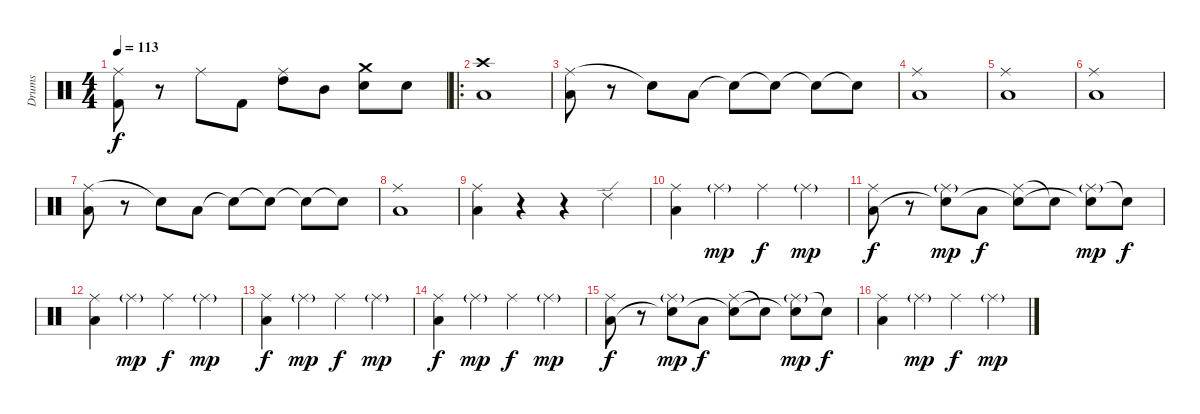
\track ("Drums" "Drums") {instrument percussion}
\staff {score}
\articulation defaults
\ts (4 4)
\tempo 113
\clef neutral
\ks c
("Ride (middle)" "Kick (hit) 2").8{dy f} r.8 "Ride (middle)".8 "Kick (hit) 2".8 ("Ride (middle)" "High Tom (hit)").8 "Mid Tom (hit)".8 ("Crash medium (hit)" "Snare (hit) 2").8 "Snare (hit) 2".8 |
\ro
("Crash high (hit)" "Low Floor Tom (hit)").1 |
("Ride (middle)" "Low Floor Tom (hit)").8 r.8 "Snare (hit)"{t}.8 "Low Floor Tom (hit)".8 "Snare (hit)"{t}.8 "Snare (hit)"{t}.8 "Snare (hit)"{t}.8 "Snare (hit)"{t}.8 |
("Ride (middle)" "Low Floor Tom (hit)").1 |
("Ride (middle)" "Low Floor Tom (hit)").1 |
("Ride (middle)" "Low Floor Tom (hit)").1 |
("Ride (middle)" "Low Floor Tom (hit)").8 r.8 "Snare (hit)"{t}.8 "Low Floor Tom (hit)".8 "Snare (hit)"{t}.8 "Snare (hit)"{t}.8 "Snare (hit)"{t}.8 "Snare (hit)"{t}.8 |
("Ride (middle)" "Low Floor Tom (hit)").1 |
("Ride (middle)" "Low Floor Tom (hit)").4 r.4 r.4 "Ride (edge) 2".4 |
("Ride (middle)" "Low Floor Tom (hit)").4 "Ride (middle)"{g}.4{dy mp} "Ride (middle)".4{dy f} "Ride (middle)"{g}.4{dy mp} |
("Ride (middle)" "Low Floor Tom (hit)").8{dy f} r.8 ("Ride (middle)"{g} "Snare (hit)"{t}).8{dy mp} "Low Floor Tom (hit)".8{dy f} ("Ride (middle)" "Snare (hit)"{t}).8 "Snare (hit)"{t}.8 ("Ride (middle)"{g} "Snare (hit)"{t}).8{dy mp} "Snare (hit)"{t}.8{dy f} |
("Ride (middle)" "Low Floor Tom (hit)").4 "Ride (middle)"{g}.4{dy mp} "Ride (middle)".4{dy f} "Ride (middle)"{g}.4{dy mp} |
("Ride (middle)" "Low Floor Tom (hit)").4{dy f} "Ride (middle)"{g}.4{dy mp} "Ride (middle)".4{dy f} "Ride (middle)"{g}.4{dy mp} |
("Ride (middle)" "Low Floor Tom (hit)").4{dy f} "Ride (middle)"{g}.4{dy mp} "Ride (middle)".4{dy f} "Ride (middle)"{g}.4{dy mp} |
("Ride (middle)" "Low Floor Tom (hit)").8{dy f} r.8 ("Ride (middle)"{g} "Snare (hit)"{t}).8{dy mp} "Low Floor Tom (hit)".8{dy f} ("Ride (middle)" "Snare (hit)"{t}).8 "Snare (hit)"{t}.8 ("Ride (middle)"{g} "Snare (hit)"{t}).8{dy mp} "Snare (hit)"{t}.8{dy f} |
("Ride (middle)" "Low Floor Tom (hit)").4 "Ride (middle)"{g}.4{dy mp} "Ride (middle)".4{dy f} "Ride (middle)"{g}.4{dy mp}
